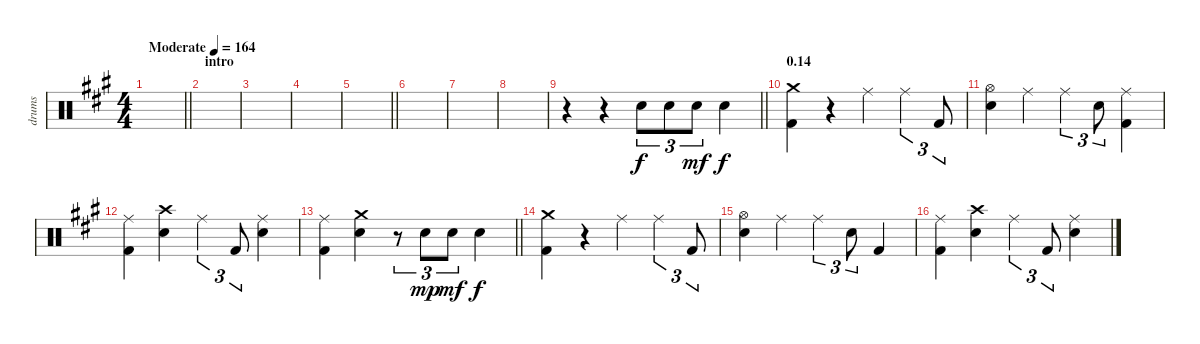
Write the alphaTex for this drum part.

\track ("drums" "drums") {instrument percussion}
\staff {score}
\articulation defaults
\ts (4 4)
\tempo (164 "Moderate")
\clef neutral
\barLineRight lightlight
\ks a
|
\section ("" "intro")
|
|
|
\barLineRight lightlight
|
|
|
|
\barLineRight lightlight
r.4 r.4 "Electric Snare (hit)".8{tu (3 2)} "Electric Snare (hit)".8{tu (3 2)} "Electric Snare (hit)".8{tu (3 2) dy mf} "Electric Snare (hit)".4{dy f} |
\section ("" "0.14")
("Crash medium (hit)" "Kick (hit) 2").4 r.4 "Ride (middle)".4 "Ride (middle)".4{tu (3 2)} "Kick (hit) 2".8{tu (3 2)} |
("Hi-Hat (open)" "Electric Snare (hit)").4 "Ride (middle)".4 "Ride (middle)".4{tu (3 2)} "Electric Snare (hit)".8{tu (3 2)} ("Ride (middle)" "Kick (hit) 2").4 |
("Ride (middle)" "Kick (hit) 2").4 ("Crash high (hit)" "Electric Snare (hit)").4 "Ride (middle)".4{tu (3 2)} "Kick (hit) 2".8{tu (3 2)} ("Ride (middle)" "Electric Snare (hit)").4 |
\barLineRight lightlight
("Ride (middle)" "Kick (hit) 2").4 ("Crash medium (hit)" "Electric Snare (hit)").4 r.8{tu (3 2)} "Electric Snare (hit)".8{tu (3 2) dy mp} "Electric Snare (hit)".8{tu (3 2) dy mf} "Electric Snare (hit)".4{dy f} |
("Crash medium (hit)" "Kick (hit) 2").4 r.4 "Ride (middle)".4 "Ride (middle)".4{tu (3 2)} "Kick (hit) 2".8{tu (3 2)} |
("Hi-Hat (open)" "Electric Snare (hit)").4 "Ride (middle)".4 "Ride (middle)".4{tu (3 2)} "Electric Snare (hit)".8{tu (3 2)} "Kick (hit) 2".4 |
("Ride (middle)" "Kick (hit) 2").4 ("Crash high (hit)" "Electric Snare (hit)").4 "Ride (middle)".4{tu (3 2)} "Kick (hit) 2".8{tu (3 2)} ("Ride (middle)" "Electric Snare (hit)").4
